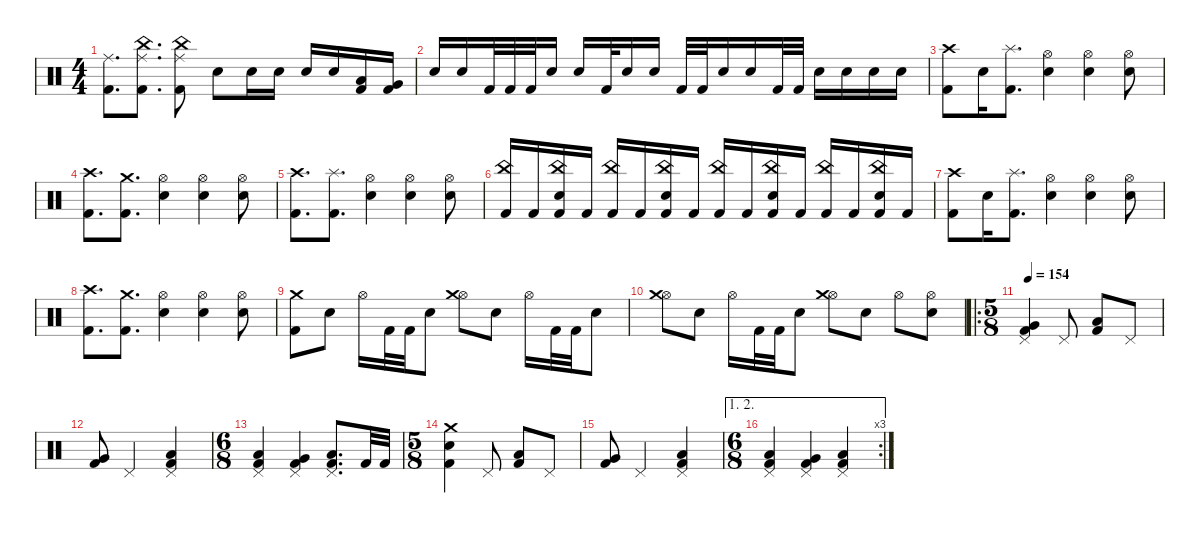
\defaultSystemsLayout 4
\hideDynamics
\bracketExtendMode nobrackets
\singleTrackTrackNamePolicy hidden
\multiTrackTrackNamePolicy hidden
\firstSystemTrackNameMode fullname
\otherSystemsTrackNameOrientation horizontal
\track ("Drums" "drm.") {instrument percussion}
\staff {score}
\articulation defaults
\ts (4 4)
\tempo (145 hide)
\clef neutral
\ks c
("Kick (hit) 2" "Ride (middle)").8{d dy f beam Down} ("Ride (middle)" "Kick (hit) 2" "China (hit)").8{d beam Down} ("China (hit)" "Ride (middle)" "Kick (hit) 2").8{beam Down} "Snare (hit) 2".8{beam Down} "Snare (hit) 2".16{beam Down} "Snare (hit) 2".16{beam Down} "Snare (hit) 2".16{beam Up} "Snare (hit) 2".16{beam Up} ("Kick (hit) 2" "Low Tom (hit)").16{beam Up} ("Kick (hit) 2" "Very Low Tom (hit)").16{beam Up} |
"Snare (hit) 2".16{beam Up} "Snare (hit) 2".16{beam Up} "Kick (hit) 2".32{beam Up} "Kick (hit) 2".32{beam Up} "Kick (hit) 2".32{beam Up} "Snare (hit) 2".16{beam Up} "Snare (hit) 2".16{beam Up} "Kick (hit) 2".32{beam Up} "Snare (hit) 2".16{beam Up} "Snare (hit) 2".16{beam Up} "Kick (hit) 2".32{beam Up} "Kick (hit) 2".32{beam Up} "Snare (hit) 2".16{beam Up} "Snare (hit) 2".16{beam Up} "Kick (hit) 2".32{beam Up} "Kick (hit) 2".32{beam Up} "Snare (hit) 2".16{beam Down} "Snare (hit) 2".16{beam Down} "Snare (hit) 2".16{beam Down} "Snare (hit) 2".16{beam Down} |
("Crash high (hit)" "Kick (hit) 2").8{beam Down} "Snare (hit) 2".16{beam Down} ("Splash (hit)" "Kick (hit) 2").8{d beam Down} ("Hi-Hat (open)" "Snare (hit) 2").4{beam Down} ("Hi-Hat (open)" "Snare (hit) 2").4{beam Down} ("Hi-Hat (open)" "Snare (hit) 2").8{beam Down} |
("Kick (hit) 2" "Crash high (hit)").8{d beam Down} ("Kick (hit) 2" "Crash medium (hit)").8{d beam Down} ("Hi-Hat (open)" "Snare (hit) 2").4{beam Down} ("Hi-Hat (open)" "Snare (hit) 2").4{beam Down} ("Hi-Hat (open)" "Snare (hit) 2").8{beam Down} |
("Crash high (hit)" "Kick (hit) 2").8{d beam Down} ("Splash (hit)" "Kick (hit) 2").8{d beam Down} ("Hi-Hat (open)" "Snare (hit) 2").4{beam Down} ("Hi-Hat (open)" "Snare (hit) 2").4{beam Down} ("Hi-Hat (open)" "Snare (hit) 2").8{beam Down} |
("Kick (hit) 2" "China (hit)").16{beam Up} "Kick (hit) 2".16{beam Up} ("Snare (hit) 2" "Kick (hit) 2" "China (hit)").16{beam Up} "Kick (hit) 2".16{beam Up} ("Kick (hit) 2" "China (hit)").16{beam Up} "Kick (hit) 2".16{beam Up} ("Snare (hit) 2" "Kick (hit) 2" "China (hit)").16{beam Up} "Kick (hit) 2".16{beam Up} ("Kick (hit) 2" "China (hit)").16{beam Up} "Kick (hit) 2".16{beam Up} ("Snare (hit) 2" "Kick (hit) 2" "China (hit)").16{beam Up} "Kick (hit) 2".16{beam Up} ("Kick (hit) 2" "China (hit)").16{beam Up} "Kick (hit) 2".16{beam Up} ("Snare (hit) 2" "Kick (hit) 2" "China (hit)").16{beam Up} "Kick (hit) 2".16{beam Up} |
("Kick (hit) 2" "Crash high (hit)").8{beam Down} "Snare (hit) 2".16{beam Down} ("Splash (hit)" "Kick (hit) 2").8{d beam Down} ("Hi-Hat (open)" "Snare (hit) 2").4{beam Down} ("Hi-Hat (open)" "Snare (hit) 2").4{beam Down} ("Hi-Hat (open)" "Snare (hit) 2").8{beam Down} |
("Kick (hit) 2" "Crash high (hit)").8{d beam Down} ("Kick (hit) 2" "Crash medium (hit)").8{d beam Down} ("Hi-Hat (open)" "Snare (hit) 2").4{beam Down} ("Hi-Hat (open)" "Snare (hit) 2").4{beam Down} ("Hi-Hat (open)" "Snare (hit) 2").8{beam Down} |
("Kick (hit) 2" "Crash medium (hit)").8{beam Down} "Snare (hit) 2".8{beam Down} "Hi-Hat (open)".16{beam Down} "Kick (hit) 2".32{beam Down} "Kick (hit) 2".32{beam Down} "Snare (hit) 2".8{beam Down} ("Hi-Hat (open)" "Crash medium (hit)").8{beam Down} "Snare (hit) 2".8{beam Down} "Hi-Hat (open)".16{beam Down} "Kick (hit) 2".32{beam Down} "Kick (hit) 2".32{beam Down} "Snare (hit) 2".8{beam Down} |
("Hi-Hat (open)" "Crash medium (hit)").8{beam Down} "Snare (hit) 2".8{beam Down} "Hi-Hat (open)".16{beam Down} "Kick (hit) 2".32{beam Down} "Kick (hit) 2".32{beam Down} "Snare (hit) 2".8{beam Down} ("Hi-Hat (open)" "Crash medium (hit)").8{beam Down} "Snare (hit) 2".8{beam Down} "Hi-Hat (open)".8{beam Down} ("Snare (hit) 2" "Hi-Hat (open)").8{beam Down} |
\ro
\ts (5 8)
\beaming (8 3 2)
\tempo 154
("Kick (hit) 2" "Pedal Hi-Hat (hit)" "Very Low Tom (hit)").4{beam Up} "Pedal Hi-Hat (hit)".8{beam Up} ("Low Floor Tom (hit)" "Kick (hit) 2").8{beam Up} "Pedal Hi-Hat (hit)".8{beam Up} |
("Very Low Tom (hit)" "Kick (hit) 2").8{beam Up} "Pedal Hi-Hat (hit)".4{beam Up} ("Low Floor Tom (hit)" "Kick (hit) 2" "Pedal Hi-Hat (hit)").4{beam Up} |
\ts (6 8)
\beaming (8 3 3)
("Kick (hit) 2" "Low Tom (hit)" "Pedal Hi-Hat (hit)").4{beam Up} ("Very Low Tom (hit)" "Kick (hit) 2" "Pedal Hi-Hat (hit)").4{beam Up} ("Kick (hit) 2" "Low Floor Tom (hit)" "Pedal Hi-Hat (hit)").8{d beam Up} "Kick (hit) 2".32{beam Up} "Kick (hit) 2".32{beam Up} |
\ts (5 8)
\beaming (8 3 3)
("Kick (hit) 2" "Snare (hit) 2" "Crash medium (hit)").4{beam Down} "Pedal Hi-Hat (hit)".8{beam Up} ("Low Floor Tom (hit)" "Kick (hit) 2").8{beam Up} "Pedal Hi-Hat (hit)".8{beam Up} |
("Very Low Tom (hit)" "Kick (hit) 2").8{beam Up} "Pedal Hi-Hat (hit)".4{beam Up} ("Low Floor Tom (hit)" "Kick (hit) 2" "Pedal Hi-Hat (hit)").4{beam Up} |
\ae (1 2)
\rc 3
\ts (6 8)
\beaming (8 3 3)
("Kick (hit) 2" "Low Tom (hit)" "Pedal Hi-Hat (hit)").4{beam Up} ("Very Low Tom (hit)" "Kick (hit) 2" "Pedal Hi-Hat (hit)").4{beam Up} ("Pedal Hi-Hat (hit)" "Low Floor Tom (hit)" "Kick (hit) 2").4{beam Up}
